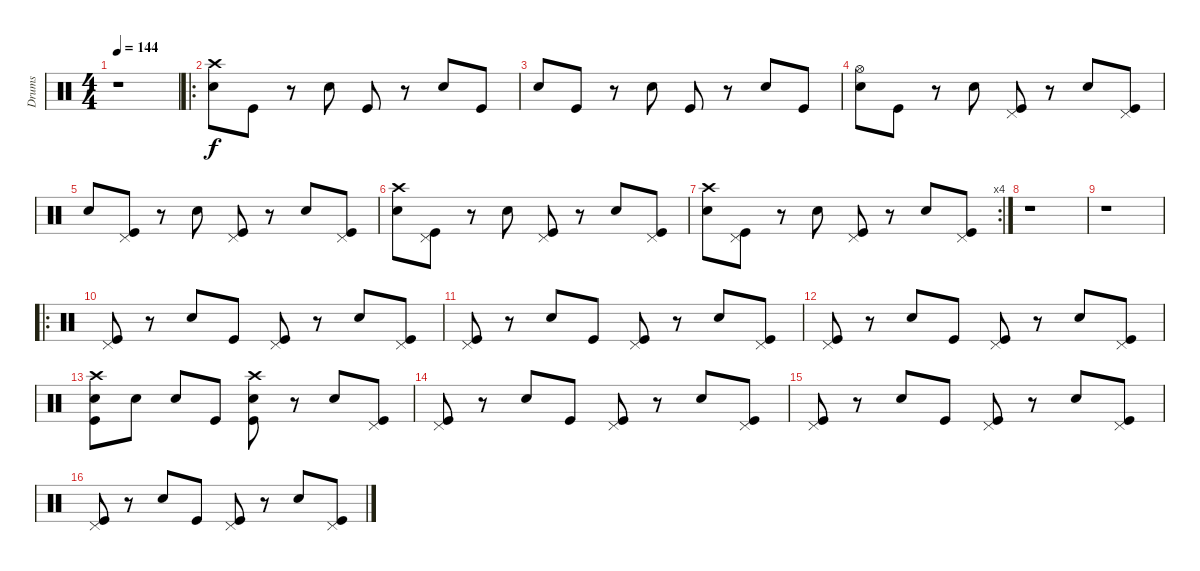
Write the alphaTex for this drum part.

\track ("Drums" "Drums") {instrument percussion}
\staff {score}
\articulation defaults
\ts (4 4)
\tempo 144
\clef neutral
\ks c
r.1{dy f} |
\ro
("Crash high (hit)" "Snare (hit) 2").8 "Kick (hit)".8 r.8 "Snare (hit) 2".8 "Kick (hit)".8 r.8 "Snare (hit) 2".8 "Kick (hit)".8 |
"Snare (hit) 2".8 "Kick (hit)".8 r.8 "Snare (hit) 2".8 "Kick (hit)".8 r.8 "Snare (hit) 2".8 "Kick (hit)".8 |
("Hi-Hat (open)" "Snare (hit) 2").8 "Kick (hit)".8 r.8 "Snare (hit) 2".8 ("Pedal Hi-Hat (hit)" "Kick (hit)").8 r.8 "Snare (hit) 2".8 ("Pedal Hi-Hat (hit)" "Kick (hit)").8 |
"Snare (hit) 2".8 ("Pedal Hi-Hat (hit)" "Kick (hit)").8 r.8 "Snare (hit) 2".8 ("Pedal Hi-Hat (hit)" "Kick (hit)").8 r.8 "Snare (hit) 2".8 ("Pedal Hi-Hat (hit)" "Kick (hit)").8 |
("Crash high (hit)" "Snare (hit) 2").8 ("Pedal Hi-Hat (hit)" "Kick (hit)").8 r.8 "Snare (hit) 2".8 ("Pedal Hi-Hat (hit)" "Kick (hit)").8 r.8 "Snare (hit) 2".8 ("Pedal Hi-Hat (hit)" "Kick (hit)").8 |
\rc 4
("Crash high (hit)" "Snare (hit) 2").8 ("Pedal Hi-Hat (hit)" "Kick (hit)").8 r.8 "Snare (hit) 2".8 ("Pedal Hi-Hat (hit)" "Kick (hit)").8 r.8 "Snare (hit) 2".8 ("Pedal Hi-Hat (hit)" "Kick (hit)").8 |
r.1 |
r.1 |
\ro
("Pedal Hi-Hat (hit)" "Kick (hit)").8 r.8 "Snare (hit) 2".8 "Kick (hit)".8 ("Pedal Hi-Hat (hit)" "Kick (hit)").8 r.8 "Snare (hit) 2".8 ("Pedal Hi-Hat (hit)" "Kick (hit)").8 |
("Pedal Hi-Hat (hit)" "Kick (hit)").8 r.8 "Snare (hit) 2".8 "Kick (hit)".8 ("Pedal Hi-Hat (hit)" "Kick (hit)").8 r.8 "Snare (hit) 2".8 ("Pedal Hi-Hat (hit)" "Kick (hit)").8 |
("Pedal Hi-Hat (hit)" "Kick (hit)").8 r.8 "Snare (hit) 2".8 "Kick (hit)".8 ("Pedal Hi-Hat (hit)" "Kick (hit)").8 r.8 "Snare (hit) 2".8 ("Pedal Hi-Hat (hit)" "Kick (hit)").8 |
("Crash high (hit)" "Snare (hit) 2" "Kick (hit)").8 "Snare (hit) 2".8 "Snare (hit) 2".8 "Kick (hit)".8 ("Crash high (hit)" "Snare (hit) 2" "Kick (hit)").8 r.8 "Snare (hit) 2".8 ("Pedal Hi-Hat (hit)" "Kick (hit)").8 |
("Pedal Hi-Hat (hit)" "Kick (hit)").8 r.8 "Snare (hit) 2".8 "Kick (hit)".8 ("Pedal Hi-Hat (hit)" "Kick (hit)").8 r.8 "Snare (hit) 2".8 ("Pedal Hi-Hat (hit)" "Kick (hit)").8 |
("Pedal Hi-Hat (hit)" "Kick (hit)").8 r.8 "Snare (hit) 2".8 "Kick (hit)".8 ("Pedal Hi-Hat (hit)" "Kick (hit)").8 r.8 "Snare (hit) 2".8 ("Pedal Hi-Hat (hit)" "Kick (hit)").8 |
("Pedal Hi-Hat (hit)" "Kick (hit)").8 r.8 "Snare (hit) 2".8 "Kick (hit)".8 ("Pedal Hi-Hat (hit)" "Kick (hit)").8 r.8 "Snare (hit) 2".8 ("Pedal Hi-Hat (hit)" "Kick (hit)").8
